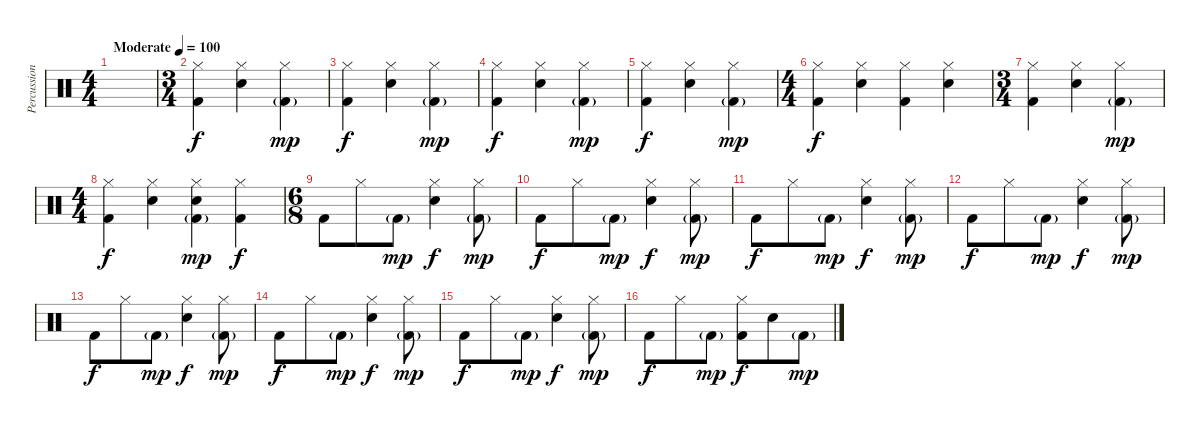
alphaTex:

\track ("Percussion" "Percussion") {instrument percussion}
\staff {score}
\articulation defaults
\ts (4 4)
\tempo (100 "Moderate")
\clef neutral
\ks c
|
\ts (3 4)
("Hi-Hat (closed)" "Kick (hit) 2").4 ("Hi-Hat (closed)" "Snare (hit) 2").4 ("Hi-Hat (closed)" "Kick (hit) 2"{g}).4{dy mp} |
("Hi-Hat (closed)" "Kick (hit) 2").4{dy f} ("Hi-Hat (closed)" "Snare (hit) 2").4 ("Hi-Hat (closed)" "Kick (hit) 2"{g}).4{dy mp} |
("Hi-Hat (closed)" "Kick (hit) 2").4{dy f} ("Hi-Hat (closed)" "Snare (hit) 2").4 ("Hi-Hat (closed)" "Kick (hit) 2"{g}).4{dy mp} |
("Hi-Hat (closed)" "Kick (hit) 2").4{dy f} ("Hi-Hat (closed)" "Snare (hit) 2").4 ("Hi-Hat (closed)" "Kick (hit) 2"{g}).4{dy mp} |
\ts (4 4)
("Hi-Hat (closed)" "Kick (hit) 2").4{dy f} ("Hi-Hat (closed)" "Snare (hit) 2").4 ("Hi-Hat (closed)" "Kick (hit) 2").4 ("Hi-Hat (closed)" "Snare (hit) 2").4 |
\ts (3 4)
("Hi-Hat (closed)" "Kick (hit) 2").4 ("Hi-Hat (closed)" "Snare (hit) 2").4 ("Hi-Hat (closed)" "Kick (hit) 2"{g}).4{dy mp} |
\ts (4 4)
("Hi-Hat (closed)" "Kick (hit) 2").4{dy f} ("Hi-Hat (closed)" "Snare (hit) 2").4 ("Hi-Hat (closed)" "Snare (hit) 2" "Kick (hit) 2"{g}).4{dy mp} ("Hi-Hat (closed)" "Kick (hit) 2").4{dy f} |
\ts (6 8)
"Kick (hit) 2".8 "Hi-Hat (closed)".8 "Kick (hit) 2"{g}.8{dy mp} ("Hi-Hat (closed)" "Snare (hit) 2").4{dy f} ("Hi-Hat (closed)" "Kick (hit) 2"{g}).8{dy mp} |
"Kick (hit) 2".8{dy f} "Hi-Hat (closed)".8 "Kick (hit) 2"{g}.8{dy mp} ("Hi-Hat (closed)" "Snare (hit) 2").4{dy f} ("Hi-Hat (closed)" "Kick (hit) 2"{g}).8{dy mp} |
"Kick (hit) 2".8{dy f} "Hi-Hat (closed)".8 "Kick (hit) 2"{g}.8{dy mp} ("Hi-Hat (closed)" "Snare (hit) 2").4{dy f} ("Hi-Hat (closed)" "Kick (hit) 2"{g}).8{dy mp} |
"Kick (hit) 2".8{dy f} "Hi-Hat (closed)".8 "Kick (hit) 2"{g}.8{dy mp} ("Hi-Hat (closed)" "Snare (hit) 2").4{dy f} ("Hi-Hat (closed)" "Kick (hit) 2"{g}).8{dy mp} |
"Kick (hit) 2".8{dy f} "Hi-Hat (closed)".8 "Kick (hit) 2"{g}.8{dy mp} ("Hi-Hat (closed)" "Snare (hit) 2").4{dy f} ("Hi-Hat (closed)" "Kick (hit) 2"{g}).8{dy mp} |
"Kick (hit) 2".8{dy f} "Hi-Hat (closed)".8 "Kick (hit) 2"{g}.8{dy mp} ("Hi-Hat (closed)" "Snare (hit) 2").4{dy f} ("Hi-Hat (closed)" "Kick (hit) 2"{g}).8{dy mp} |
"Kick (hit) 2".8{dy f} "Hi-Hat (closed)".8 "Kick (hit) 2"{g}.8{dy mp} ("Hi-Hat (closed)" "Snare (hit) 2").4{dy f} ("Hi-Hat (closed)" "Kick (hit) 2"{g}).8{dy mp} |
"Kick (hit) 2".8{dy f} "Hi-Hat (closed)".8 "Kick (hit) 2"{g}.8{dy mp} ("Hi-Hat (closed)" "Kick (hit) 2").8{dy f} "Snare (hit) 2".8 "Kick (hit) 2"{g}.8{dy mp}
